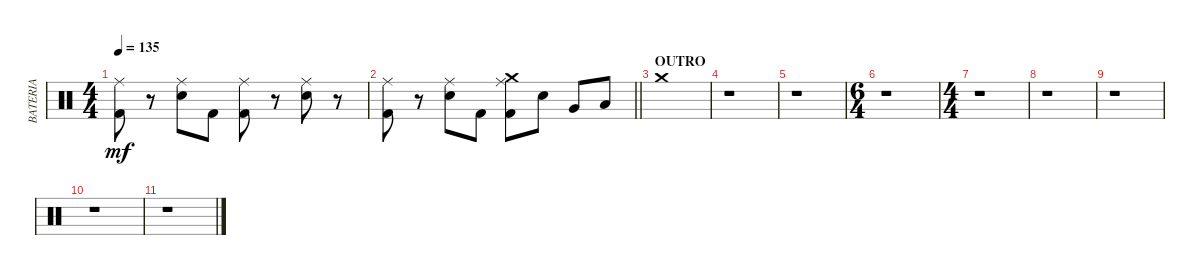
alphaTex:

\track ("BATERIA" "BATERIA") {instrument percussion}
\staff {score}
\articulation defaults
\ts (4 4)
\tempo 135
\clef neutral
\ks c
("Ride (middle)" "Kick (hit) 2").8{dy mf} r.8 ("Ride (middle)" "Electric Snare (hit)").8 "Kick (hit) 2".8 ("Ride (middle)" "Kick (hit) 2").8 r.8 ("Ride (middle)" "Electric Snare (hit)").8 r.8 |
\barLineRight lightlight
("Ride (middle)" "Kick (hit) 2").8 r.8 ("Ride (middle)" "Electric Snare (hit)").8 "Kick (hit) 2".8 ("Crash medium (hit)" "Ride (middle)" "Kick (hit) 2").8 "Electric Snare (hit)".8 "Very Low Tom (hit)".8 "Low Floor Tom (hit)".8 |
\section ("" "OUTRO")
"Crash medium (hit)".1 |
r.1 |
r.1 |
\ts (6 4)
r.1 |
\ts (4 4)
r.1 |
r.1 |
r.1 |
r.1 |
r.1
